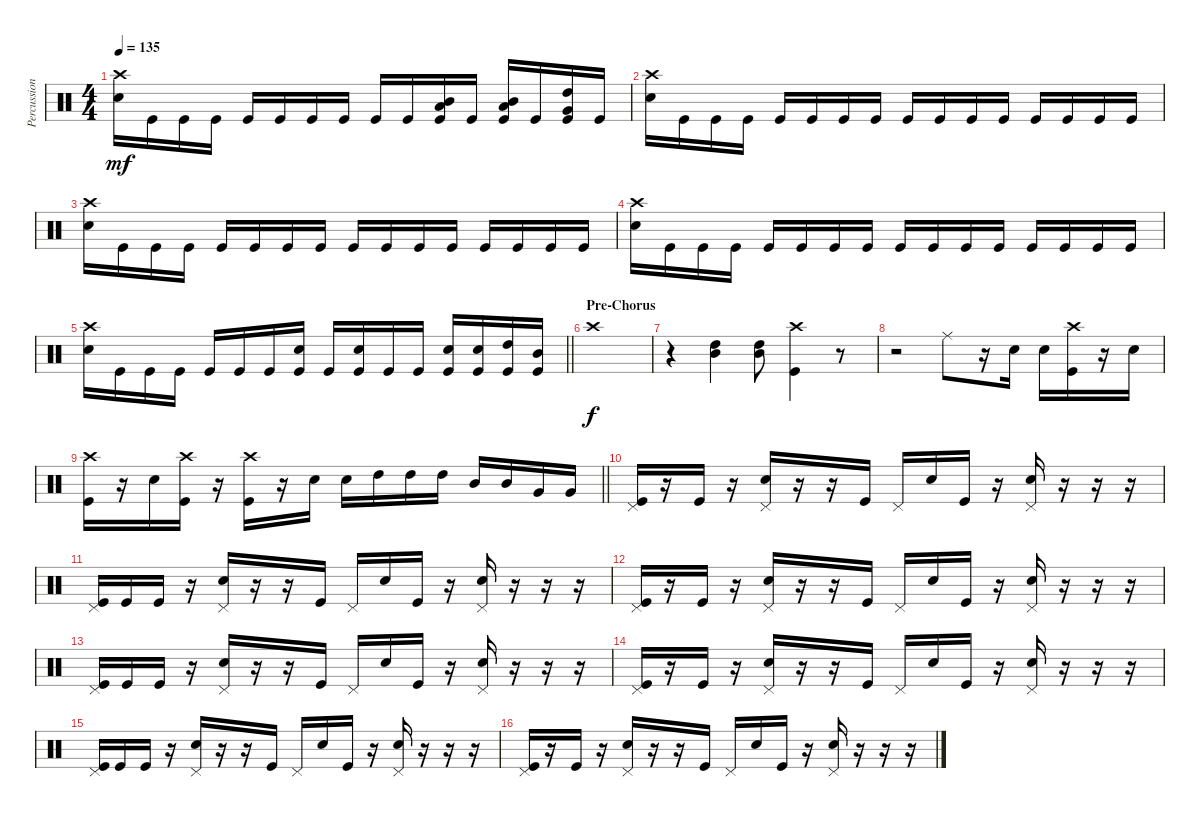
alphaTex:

\track ("Percussion" "Percussion") {instrument percussion}
\staff {score}
\articulation defaults
\ts (4 4)
\tempo 135
\clef neutral
\ks c
("Crash high (hit)" "Snare (hit) 2").16{dy mf} "Kick (hit)".16 "Kick (hit)".16 "Kick (hit)".16 "Kick (hit)".16 "Kick (hit)".16 "Kick (hit)".16 "Kick (hit)".16 "Kick (hit)".16 "Kick (hit)".16 ("Low Tom (hit)" "Mid Tom (hit)" "Kick (hit)").16 "Kick (hit)".16 ("Low Tom (hit)" "Mid Tom (hit)" "Kick (hit)").16 "Kick (hit)".16 ("Very Low Tom (hit)" "High Tom (hit)" "Kick (hit)").16 "Kick (hit)".16 |
("Crash high (hit)" "Snare (hit) 2").16 "Kick (hit)".16 "Kick (hit)".16 "Kick (hit)".16 "Kick (hit)".16 "Kick (hit)".16 "Kick (hit)".16 "Kick (hit)".16 "Kick (hit)".16 "Kick (hit)".16 "Kick (hit)".16 "Kick (hit)".16 "Kick (hit)".16 "Kick (hit)".16 "Kick (hit)".16 "Kick (hit)".16 |
("Crash high (hit)" "Snare (hit) 2").16 "Kick (hit)".16 "Kick (hit)".16 "Kick (hit)".16 "Kick (hit)".16 "Kick (hit)".16 "Kick (hit)".16 "Kick (hit)".16 "Kick (hit)".16 "Kick (hit)".16 "Kick (hit)".16 "Kick (hit)".16 "Kick (hit)".16 "Kick (hit)".16 "Kick (hit)".16 "Kick (hit)".16 |
("Crash high (hit)" "Snare (hit) 2").16 "Kick (hit)".16 "Kick (hit)".16 "Kick (hit)".16 "Kick (hit)".16 "Kick (hit)".16 "Kick (hit)".16 "Kick (hit)".16 "Kick (hit)".16 "Kick (hit)".16 "Kick (hit)".16 "Kick (hit)".16 "Kick (hit)".16 "Kick (hit)".16 "Kick (hit)".16 "Kick (hit)".16 |
\barLineRight lightlight
("Crash high (hit)" "Snare (hit) 2").16 "Kick (hit)".16 "Kick (hit)".16 "Kick (hit)".16 "Kick (hit)".16 "Kick (hit)".16 "Kick (hit)".16 ("Snare (hit) 2" "Kick (hit)").16 "Kick (hit)".16 ("Snare (hit) 2" "Kick (hit)").16 "Kick (hit)".16 "Kick (hit)".16 ("Snare (hit) 2" "Kick (hit)").16 ("Snare (hit) 2" "Kick (hit)").16 ("High Tom (hit)" "Kick (hit)").16 ("Mid Tom (hit)" "Kick (hit)").16 |
\section ("" "Pre-Chorus")
"Crash high (hit)".1{dy f} |
r.4 ("Mid Tom (hit)" "High Tom (hit)").4 ("Mid Tom (hit)" "High Tom (hit)").8 ("Crash high (hit)" "Kick (hit)").4 r.8 |
r.2 "Ride (middle)".8 r.16 "Snare (hit) 2".16 "Snare (hit) 2".16 ("Crash high (hit)" "Kick (hit)").16 r.16 "Snare (hit) 2".16 |
\barLineRight lightlight
("Crash high (hit)" "Kick (hit)").16 r.16 "Snare (hit) 2".16 ("Crash high (hit)" "Kick (hit)").16 r.16 ("Crash high (hit)" "Kick (hit)").16 r.16 "Snare (hit) 2".16 "Snare (hit) 2".16 "High Tom (hit)".16 "High Tom (hit)".16 "High Tom (hit)".16 "Mid Tom (hit)".16 "Mid Tom (hit)".16 "Very Low Tom (hit)".16 "Very Low Tom (hit)".16 |
("Pedal Hi-Hat (hit)" "Kick (hit)").16 r.16 "Kick (hit)".16 r.16 ("Pedal Hi-Hat (hit)" "Snare (hit) 2").16 r.16 r.16 "Kick (hit)".16 "Pedal Hi-Hat (hit)".16 "Snare (hit) 2".16 "Kick (hit)".16 r.16 ("Pedal Hi-Hat (hit)" "Snare (hit) 2").16 r.16 r.16 r.16 |
("Pedal Hi-Hat (hit)" "Kick (hit)").16 "Kick (hit)".16 "Kick (hit)".16 r.16 ("Pedal Hi-Hat (hit)" "Snare (hit) 2").16 r.16 r.16 "Kick (hit)".16 "Pedal Hi-Hat (hit)".16 "Snare (hit) 2".16 "Kick (hit)".16 r.16 ("Pedal Hi-Hat (hit)" "Snare (hit) 2").16 r.16 r.16 r.16 |
("Pedal Hi-Hat (hit)" "Kick (hit)").16 r.16 "Kick (hit)".16 r.16 ("Pedal Hi-Hat (hit)" "Snare (hit) 2").16 r.16 r.16 "Kick (hit)".16 "Pedal Hi-Hat (hit)".16 "Snare (hit) 2".16 "Kick (hit)".16 r.16 ("Pedal Hi-Hat (hit)" "Snare (hit) 2").16 r.16 r.16 r.16 |
("Pedal Hi-Hat (hit)" "Kick (hit)").16 "Kick (hit)".16 "Kick (hit)".16 r.16 ("Pedal Hi-Hat (hit)" "Snare (hit) 2").16 r.16 r.16 "Kick (hit)".16 "Pedal Hi-Hat (hit)".16 "Snare (hit) 2".16 "Kick (hit)".16 r.16 ("Pedal Hi-Hat (hit)" "Snare (hit) 2").16 r.16 r.16 r.16 |
("Pedal Hi-Hat (hit)" "Kick (hit)").16 r.16 "Kick (hit)".16 r.16 ("Pedal Hi-Hat (hit)" "Snare (hit) 2").16 r.16 r.16 "Kick (hit)".16 "Pedal Hi-Hat (hit)".16 "Snare (hit) 2".16 "Kick (hit)".16 r.16 ("Pedal Hi-Hat (hit)" "Snare (hit) 2").16 r.16 r.16 r.16 |
("Pedal Hi-Hat (hit)" "Kick (hit)").16 "Kick (hit)".16 "Kick (hit)".16 r.16 ("Pedal Hi-Hat (hit)" "Snare (hit) 2").16 r.16 r.16 "Kick (hit)".16 "Pedal Hi-Hat (hit)".16 "Snare (hit) 2".16 "Kick (hit)".16 r.16 ("Pedal Hi-Hat (hit)" "Snare (hit) 2").16 r.16 r.16 r.16 |
("Pedal Hi-Hat (hit)" "Kick (hit)").16 r.16 "Kick (hit)".16 r.16 ("Pedal Hi-Hat (hit)" "Snare (hit) 2").16 r.16 r.16 "Kick (hit)".16 "Pedal Hi-Hat (hit)".16 "Snare (hit) 2".16 "Kick (hit)".16 r.16 ("Pedal Hi-Hat (hit)" "Snare (hit) 2").16 r.16 r.16 r.16
